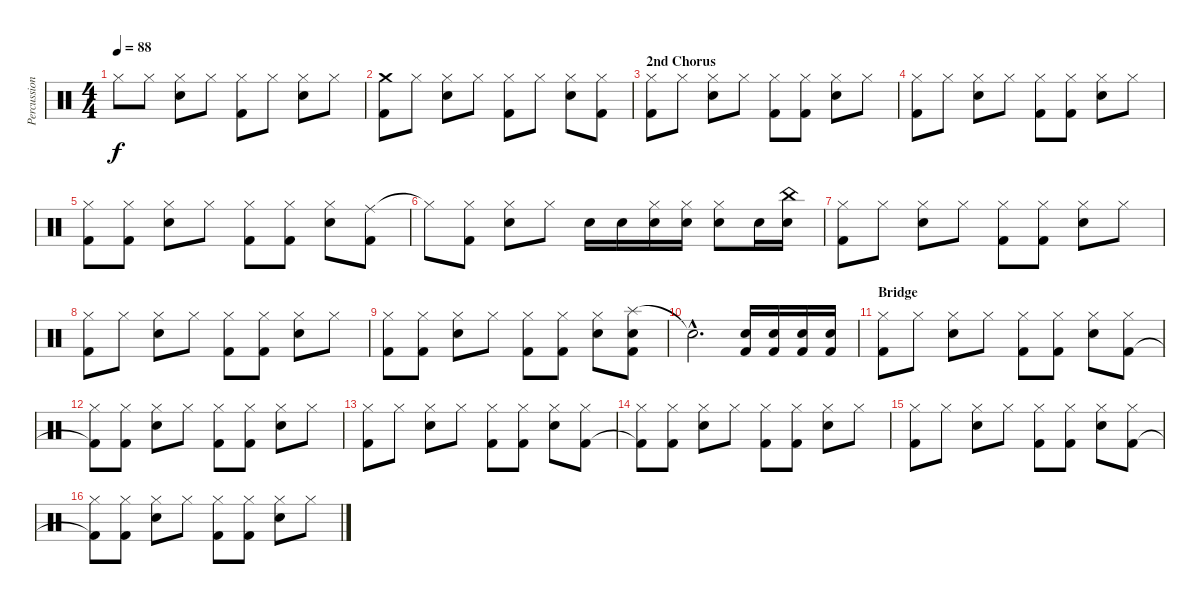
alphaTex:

\track ("Percussion" "Percussion") {instrument percussion}
\staff {score}
\articulation defaults
\ts (4 4)
\tempo 88
\clef neutral
\ks c "Hi-Hat (closed)".8{dy f} "Hi-Hat (closed)".8
("Hi-Hat (closed)" "Snare (hit) 2").8 "Hi-Hat (closed)".8 ("Hi-Hat (closed)" "Kick (hit) 2").8 "Hi-Hat (closed)".8 ("Hi-Hat (closed)" "Snare (hit) 2").8 "Hi-Hat (closed)".8 |
("Crash medium (hit)" "Kick (hit) 2").8 "Hi-Hat (closed)".8 ("Hi-Hat (closed)" "Snare (hit) 2").8 "Hi-Hat (closed)".8 ("Hi-Hat (closed)" "Kick (hit) 2").8 "Hi-Hat (closed)".8 ("Hi-Hat (closed)" "Snare (hit) 2").8 ("Hi-Hat (closed)" "Kick (hit) 2").8 |
\section ("" "2nd Chorus")
("Hi-Hat (closed)" "Kick (hit) 2").8 "Hi-Hat (closed)".8 ("Hi-Hat (closed)" "Snare (hit) 2").8 "Hi-Hat (closed)".8 ("Hi-Hat (closed)" "Kick (hit) 2").8 ("Hi-Hat (closed)" "Kick (hit) 2").8 ("Hi-Hat (closed)" "Snare (hit) 2").8 "Hi-Hat (closed)".8 |
("Hi-Hat (closed)" "Kick (hit) 2").8 "Hi-Hat (closed)".8 ("Hi-Hat (closed)" "Snare (hit) 2").8 "Hi-Hat (closed)".8 ("Hi-Hat (closed)" "Kick (hit) 2").8 ("Hi-Hat (closed)" "Kick (hit) 2").8 ("Hi-Hat (closed)" "Snare (hit) 2").8 "Hi-Hat (closed)".8 |
("Hi-Hat (closed)" "Kick (hit) 2").8 ("Hi-Hat (closed)" "Kick (hit) 2").8 ("Hi-Hat (closed)" "Snare (hit) 2").8 "Hi-Hat (closed)".8 ("Hi-Hat (closed)" "Kick (hit) 2").8 ("Hi-Hat (closed)" "Kick (hit) 2").8 ("Hi-Hat (closed)" "Snare (hit) 2").8 ("Ride (middle)" "Kick (hit) 2").8 |
"Hi-Hat (closed)"{t}.8 ("Hi-Hat (closed)" "Kick (hit) 2").8 ("Hi-Hat (closed)" "Snare (hit) 2").8 "Hi-Hat (closed)".8 "Snare (hit) 2".16 "Snare (hit) 2".16 ("Hi-Hat (closed)" "Snare (hit) 2").16 ("Hi-Hat (closed)" "Snare (hit) 2").16 ("Hi-Hat (closed)" "Snare (hit) 2").8 "Snare (hit) 2".16 ("China (hit)" "Snare (hit) 2").16 |
("Hi-Hat (closed)" "Kick (hit) 2").8 "Hi-Hat (closed)".8 ("Hi-Hat (closed)" "Snare (hit) 2").8 "Hi-Hat (closed)".8 ("Hi-Hat (closed)" "Kick (hit) 2").8 ("Hi-Hat (closed)" "Kick (hit) 2").8 ("Hi-Hat (closed)" "Snare (hit) 2").8 "Hi-Hat (closed)".8 |
("Hi-Hat (closed)" "Kick (hit) 2").8 "Hi-Hat (closed)".8 ("Hi-Hat (closed)" "Snare (hit) 2").8 "Hi-Hat (closed)".8 ("Hi-Hat (closed)" "Kick (hit) 2").8 ("Hi-Hat (closed)" "Kick (hit) 2").8 ("Hi-Hat (closed)" "Snare (hit) 2").8 "Hi-Hat (closed)".8 |
("Hi-Hat (closed)" "Kick (hit) 2").8 ("Hi-Hat (closed)" "Kick (hit) 2").8 ("Hi-Hat (closed)" "Snare (hit) 2").8 "Hi-Hat (closed)".8 ("Hi-Hat (closed)" "Kick (hit) 2").8 ("Hi-Hat (closed)" "Kick (hit) 2").8 ("Hi-Hat (closed)" "Snare (hit) 2").8 ("Splash (hit)" "Snare (hit) 2" "Kick (hit) 2").8 |
"Snare (hit)"{hac t}.2{d} ("Snare (hit) 2" "Kick (hit) 2").16 ("Snare (hit) 2" "Kick (hit) 2").16 ("Snare (hit) 2" "Kick (hit) 2").16 ("Snare (hit) 2" "Kick (hit) 2").16 |
\section ("" "Bridge")
("Hi-Hat (closed)" "Kick (hit) 2").8 "Hi-Hat (closed)".8 ("Hi-Hat (closed)" "Snare (hit) 2").8 "Hi-Hat (closed)".8 ("Hi-Hat (closed)" "Kick (hit) 2").8 ("Hi-Hat (closed)" "Kick (hit) 2").8 ("Hi-Hat (closed)" "Snare (hit) 2").8 ("Hi-Hat (closed)" "Kick (hit) 2").8 |
("Hi-Hat (closed)" "Kick (hit) 2"{t}).8 ("Hi-Hat (closed)" "Kick (hit) 2").8 ("Hi-Hat (closed)" "Snare (hit) 2").8 "Hi-Hat (closed)".8 ("Hi-Hat (closed)" "Kick (hit) 2").8 ("Hi-Hat (closed)" "Kick (hit) 2").8 ("Hi-Hat (closed)" "Snare (hit) 2").8 "Hi-Hat (closed)".8 |
("Hi-Hat (closed)" "Kick (hit) 2").8 "Hi-Hat (closed)".8 ("Hi-Hat (closed)" "Snare (hit) 2").8 "Hi-Hat (closed)".8 ("Hi-Hat (closed)" "Kick (hit) 2").8 ("Hi-Hat (closed)" "Kick (hit) 2").8 ("Hi-Hat (closed)" "Snare (hit) 2").8 ("Hi-Hat (closed)" "Kick (hit) 2").8 |
("Hi-Hat (closed)" "Kick (hit) 2"{t}).8 ("Hi-Hat (closed)" "Kick (hit) 2").8 ("Hi-Hat (closed)" "Snare (hit) 2").8 "Hi-Hat (closed)".8 ("Hi-Hat (closed)" "Kick (hit) 2").8 ("Hi-Hat (closed)" "Kick (hit) 2").8 ("Hi-Hat (closed)" "Snare (hit) 2").8 "Hi-Hat (closed)".8 |
("Hi-Hat (closed)" "Kick (hit) 2").8 "Hi-Hat (closed)".8 ("Hi-Hat (closed)" "Snare (hit) 2").8 "Hi-Hat (closed)".8 ("Hi-Hat (closed)" "Kick (hit) 2").8 ("Hi-Hat (closed)" "Kick (hit) 2").8 ("Hi-Hat (closed)" "Snare (hit) 2").8 ("Hi-Hat (closed)" "Kick (hit) 2").8 |
("Hi-Hat (closed)" "Kick (hit) 2"{t}).8 ("Hi-Hat (closed)" "Kick (hit) 2").8 ("Hi-Hat (closed)" "Snare (hit) 2").8 "Hi-Hat (closed)".8 ("Hi-Hat (closed)" "Kick (hit) 2").8 ("Hi-Hat (closed)" "Kick (hit) 2").8 ("Hi-Hat (closed)" "Snare (hit) 2").8 "Hi-Hat (closed)".8
